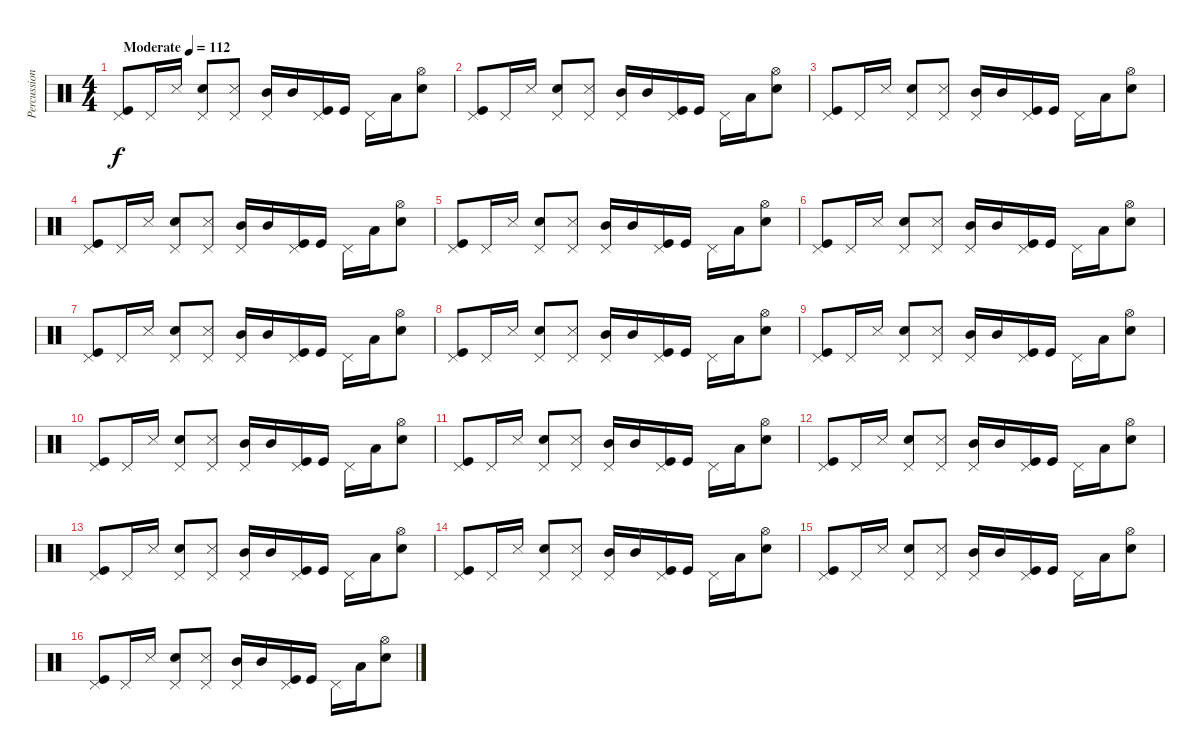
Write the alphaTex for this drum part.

\track ("Percussion" "Percussion") {instrument percussion}
\staff {score}
\articulation defaults
\ts (4 4)
\tempo (112 "Moderate")
\clef neutral
\ks c
("Pedal Hi-Hat (hit)" "Kick (hit)").8{dy f} "Pedal Hi-Hat (hit)".16 "Snare (side stick) 3".16 ("Pedal Hi-Hat (hit)" "Electric Snare (hit)").8 ("Pedal Hi-Hat (hit)" "Snare (side stick) 3").8 ("Pedal Hi-Hat (hit)" "Mid Tom (hit)").16 "Mid Tom (hit)".16 ("Pedal Hi-Hat (hit)" "Kick (hit)").16 "Kick (hit)".16 "Pedal Hi-Hat (hit)".16 "Low Tom (hit)".16 ("Hi-Hat (open)" "Electric Snare (hit)").8 |
("Pedal Hi-Hat (hit)" "Kick (hit)").8 "Pedal Hi-Hat (hit)".16 "Snare (side stick) 3".16 ("Pedal Hi-Hat (hit)" "Electric Snare (hit)").8 ("Pedal Hi-Hat (hit)" "Snare (side stick) 3").8 ("Pedal Hi-Hat (hit)" "Mid Tom (hit)").16 "Mid Tom (hit)".16 ("Pedal Hi-Hat (hit)" "Kick (hit)").16 "Kick (hit)".16 "Pedal Hi-Hat (hit)".16 "Low Tom (hit)".16 ("Hi-Hat (open)" "Electric Snare (hit)").8 |
("Pedal Hi-Hat (hit)" "Kick (hit)").8 "Pedal Hi-Hat (hit)".16 "Snare (side stick) 3".16 ("Pedal Hi-Hat (hit)" "Electric Snare (hit)").8 ("Pedal Hi-Hat (hit)" "Snare (side stick) 3").8 ("Pedal Hi-Hat (hit)" "Mid Tom (hit)").16 "Mid Tom (hit)".16 ("Pedal Hi-Hat (hit)" "Kick (hit)").16 "Kick (hit)".16 "Pedal Hi-Hat (hit)".16 "Low Tom (hit)".16 ("Hi-Hat (open)" "Electric Snare (hit)").8 |
("Pedal Hi-Hat (hit)" "Kick (hit)").8 "Pedal Hi-Hat (hit)".16 "Snare (side stick) 3".16 ("Pedal Hi-Hat (hit)" "Electric Snare (hit)").8 ("Pedal Hi-Hat (hit)" "Snare (side stick) 3").8 ("Pedal Hi-Hat (hit)" "Mid Tom (hit)").16 "Mid Tom (hit)".16 ("Pedal Hi-Hat (hit)" "Kick (hit)").16 "Kick (hit)".16 "Pedal Hi-Hat (hit)".16 "Low Tom (hit)".16 ("Hi-Hat (open)" "Electric Snare (hit)").8 |
("Pedal Hi-Hat (hit)" "Kick (hit)").8 "Pedal Hi-Hat (hit)".16 "Snare (side stick) 3".16 ("Pedal Hi-Hat (hit)" "Electric Snare (hit)").8 ("Pedal Hi-Hat (hit)" "Snare (side stick) 3").8 ("Pedal Hi-Hat (hit)" "Mid Tom (hit)").16 "Mid Tom (hit)".16 ("Pedal Hi-Hat (hit)" "Kick (hit)").16 "Kick (hit)".16 "Pedal Hi-Hat (hit)".16 "Low Tom (hit)".16 ("Hi-Hat (open)" "Electric Snare (hit)").8 |
("Pedal Hi-Hat (hit)" "Kick (hit)").8 "Pedal Hi-Hat (hit)".16 "Snare (side stick) 3".16 ("Pedal Hi-Hat (hit)" "Electric Snare (hit)").8 ("Pedal Hi-Hat (hit)" "Snare (side stick) 3").8 ("Pedal Hi-Hat (hit)" "Mid Tom (hit)").16 "Mid Tom (hit)".16 ("Pedal Hi-Hat (hit)" "Kick (hit)").16 "Kick (hit)".16 "Pedal Hi-Hat (hit)".16 "Low Tom (hit)".16 ("Hi-Hat (open)" "Electric Snare (hit)").8 |
("Pedal Hi-Hat (hit)" "Kick (hit)").8 "Pedal Hi-Hat (hit)".16 "Snare (side stick) 3".16 ("Pedal Hi-Hat (hit)" "Electric Snare (hit)").8 ("Pedal Hi-Hat (hit)" "Snare (side stick) 3").8 ("Pedal Hi-Hat (hit)" "Mid Tom (hit)").16 "Mid Tom (hit)".16 ("Pedal Hi-Hat (hit)" "Kick (hit)").16 "Kick (hit)".16 "Pedal Hi-Hat (hit)".16 "Low Tom (hit)".16 ("Hi-Hat (open)" "Electric Snare (hit)").8 |
("Pedal Hi-Hat (hit)" "Kick (hit)").8 "Pedal Hi-Hat (hit)".16 "Snare (side stick) 3".16 ("Pedal Hi-Hat (hit)" "Electric Snare (hit)").8 ("Pedal Hi-Hat (hit)" "Snare (side stick) 3").8 ("Pedal Hi-Hat (hit)" "Mid Tom (hit)").16 "Mid Tom (hit)".16 ("Pedal Hi-Hat (hit)" "Kick (hit)").16 "Kick (hit)".16 "Pedal Hi-Hat (hit)".16 "Low Tom (hit)".16 ("Hi-Hat (open)" "Electric Snare (hit)").8 |
("Pedal Hi-Hat (hit)" "Kick (hit)").8 "Pedal Hi-Hat (hit)".16 "Snare (side stick) 3".16 ("Pedal Hi-Hat (hit)" "Electric Snare (hit)").8 ("Pedal Hi-Hat (hit)" "Snare (side stick) 3").8 ("Pedal Hi-Hat (hit)" "Mid Tom (hit)").16 "Mid Tom (hit)".16 ("Pedal Hi-Hat (hit)" "Kick (hit)").16 "Kick (hit)".16 "Pedal Hi-Hat (hit)".16 "Low Tom (hit)".16 ("Hi-Hat (open)" "Electric Snare (hit)").8 |
("Pedal Hi-Hat (hit)" "Kick (hit)").8 "Pedal Hi-Hat (hit)".16 "Snare (side stick) 3".16 ("Pedal Hi-Hat (hit)" "Electric Snare (hit)").8 ("Pedal Hi-Hat (hit)" "Snare (side stick) 3").8 ("Pedal Hi-Hat (hit)" "Mid Tom (hit)").16 "Mid Tom (hit)".16 ("Pedal Hi-Hat (hit)" "Kick (hit)").16 "Kick (hit)".16 "Pedal Hi-Hat (hit)".16 "Low Tom (hit)".16 ("Hi-Hat (open)" "Electric Snare (hit)").8 |
("Pedal Hi-Hat (hit)" "Kick (hit)").8 "Pedal Hi-Hat (hit)".16 "Snare (side stick) 3".16 ("Pedal Hi-Hat (hit)" "Electric Snare (hit)").8 ("Pedal Hi-Hat (hit)" "Snare (side stick) 3").8 ("Pedal Hi-Hat (hit)" "Mid Tom (hit)").16 "Mid Tom (hit)".16 ("Pedal Hi-Hat (hit)" "Kick (hit)").16 "Kick (hit)".16 "Pedal Hi-Hat (hit)".16 "Low Tom (hit)".16 ("Hi-Hat (open)" "Electric Snare (hit)").8 |
("Pedal Hi-Hat (hit)" "Kick (hit)").8 "Pedal Hi-Hat (hit)".16 "Snare (side stick) 3".16 ("Pedal Hi-Hat (hit)" "Electric Snare (hit)").8 ("Pedal Hi-Hat (hit)" "Snare (side stick) 3").8 ("Pedal Hi-Hat (hit)" "Mid Tom (hit)").16 "Mid Tom (hit)".16 ("Pedal Hi-Hat (hit)" "Kick (hit)").16 "Kick (hit)".16 "Pedal Hi-Hat (hit)".16 "Low Tom (hit)".16 ("Hi-Hat (open)" "Electric Snare (hit)").8 |
("Pedal Hi-Hat (hit)" "Kick (hit)").8 "Pedal Hi-Hat (hit)".16 "Snare (side stick) 3".16 ("Pedal Hi-Hat (hit)" "Electric Snare (hit)").8 ("Pedal Hi-Hat (hit)" "Snare (side stick) 3").8 ("Pedal Hi-Hat (hit)" "Mid Tom (hit)").16 "Mid Tom (hit)".16 ("Pedal Hi-Hat (hit)" "Kick (hit)").16 "Kick (hit)".16 "Pedal Hi-Hat (hit)".16 "Low Tom (hit)".16 ("Hi-Hat (open)" "Electric Snare (hit)").8 |
("Pedal Hi-Hat (hit)" "Kick (hit)").8 "Pedal Hi-Hat (hit)".16 "Snare (side stick) 3".16 ("Pedal Hi-Hat (hit)" "Electric Snare (hit)").8 ("Pedal Hi-Hat (hit)" "Snare (side stick) 3").8 ("Pedal Hi-Hat (hit)" "Mid Tom (hit)").16 "Mid Tom (hit)".16 ("Pedal Hi-Hat (hit)" "Kick (hit)").16 "Kick (hit)".16 "Pedal Hi-Hat (hit)".16 "Low Tom (hit)".16 ("Hi-Hat (open)" "Electric Snare (hit)").8 |
("Pedal Hi-Hat (hit)" "Kick (hit)").8 "Pedal Hi-Hat (hit)".16 "Snare (side stick) 3".16 ("Pedal Hi-Hat (hit)" "Electric Snare (hit)").8 ("Pedal Hi-Hat (hit)" "Snare (side stick) 3").8 ("Pedal Hi-Hat (hit)" "Mid Tom (hit)").16 "Mid Tom (hit)".16 ("Pedal Hi-Hat (hit)" "Kick (hit)").16 "Kick (hit)".16 "Pedal Hi-Hat (hit)".16 "Low Tom (hit)".16 ("Hi-Hat (open)" "Electric Snare (hit)").8 |
("Pedal Hi-Hat (hit)" "Kick (hit)").8 "Pedal Hi-Hat (hit)".16 "Snare (side stick) 3".16 ("Pedal Hi-Hat (hit)" "Electric Snare (hit)").8 ("Pedal Hi-Hat (hit)" "Snare (side stick) 3").8 ("Pedal Hi-Hat (hit)" "Mid Tom (hit)").16 "Mid Tom (hit)".16 ("Pedal Hi-Hat (hit)" "Kick (hit)").16 "Kick (hit)".16 "Pedal Hi-Hat (hit)".16 "Low Tom (hit)".16 ("Hi-Hat (open)" "Electric Snare (hit)").8
